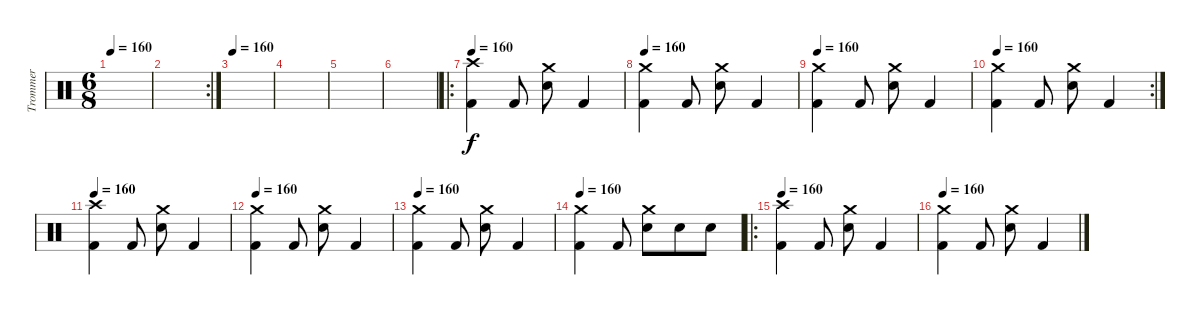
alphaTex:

\track ("Trommer" "Trommer") {instrument percussion}
\staff {score}
\articulation defaults
\ts (6 8)
\tempo 160
\clef neutral
\ks c
|
\rc 2
|
\tempo 160
|
|
|
|
\ro
\tempo 160
("Kick (hit) 2" "Crash high (hit)").4 "Kick (hit) 2".8 ("Snare (hit) 2" "Crash medium (hit)").8 "Kick (hit) 2".4 |
\tempo 160
("Kick (hit) 2" "Crash medium (hit)").4 "Kick (hit) 2".8 ("Snare (hit) 2" "Crash medium (hit)").8 "Kick (hit) 2".4 |
\tempo 160
("Kick (hit) 2" "Crash medium (hit)").4 "Kick (hit) 2".8 ("Snare (hit) 2" "Crash medium (hit)").8 "Kick (hit) 2".4 |
\rc 2
\tempo 160
("Kick (hit) 2" "Crash medium (hit)").4 "Kick (hit) 2".8 ("Snare (hit) 2" "Crash medium (hit)").8 "Kick (hit) 2".4 |
\tempo 160
("Kick (hit) 2" "Crash high (hit)").4 "Kick (hit) 2".8 ("Snare (hit) 2" "Crash medium (hit)").8 "Kick (hit) 2".4 |
\tempo 160
("Kick (hit) 2" "Crash medium (hit)").4 "Kick (hit) 2".8 ("Snare (hit) 2" "Crash medium (hit)").8 "Kick (hit) 2".4 |
\tempo 160
("Kick (hit) 2" "Crash medium (hit)").4 "Kick (hit) 2".8 ("Snare (hit) 2" "Crash medium (hit)").8 "Kick (hit) 2".4 |
\tempo 160
("Kick (hit) 2" "Crash medium (hit)").4 "Kick (hit) 2".8 ("Snare (hit) 2" "Crash medium (hit)").8 "Snare (hit) 2".8 "Snare (hit) 2".8 |
\ro
\tempo 160
("Kick (hit) 2" "Crash high (hit)").4 "Kick (hit) 2".8 ("Snare (hit) 2" "Crash medium (hit)").8 "Kick (hit) 2".4 |
\tempo 160
("Kick (hit) 2" "Crash medium (hit)").4 "Kick (hit) 2".8 ("Snare (hit) 2" "Crash medium (hit)").8 "Kick (hit) 2".4
